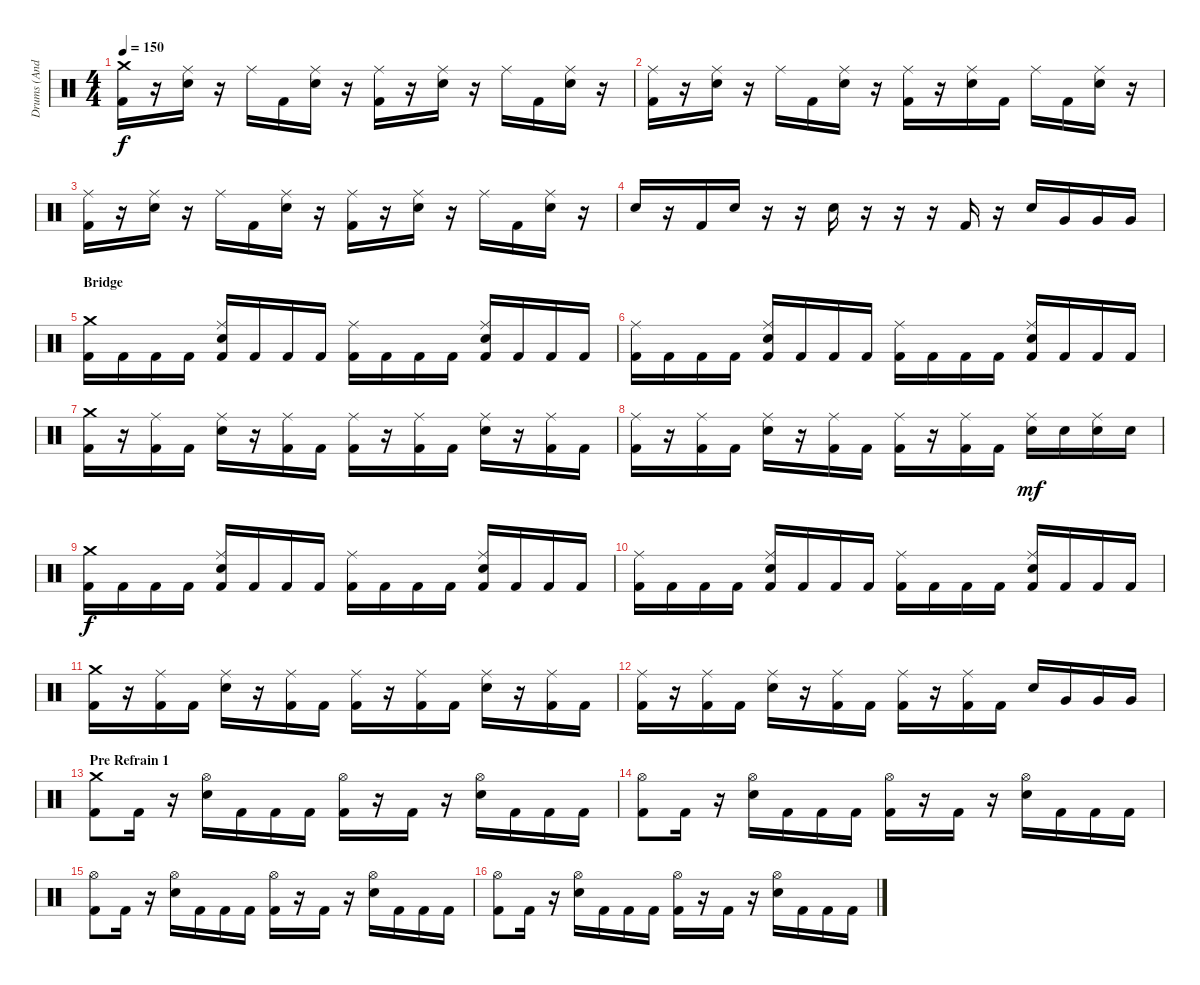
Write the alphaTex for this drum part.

\track ("Drums (Andy C)" "Drums (And") {instrument percussion}
\staff {score}
\articulation defaults
\ts (4 4)
\tempo 150
\clef neutral
\ks c
("Crash medium (hit)" "Kick (hit) 2").16{dy f} r.16 ("Ride (middle)" "Electric Snare (hit)").16 r.16 "Ride (middle)".16 "Kick (hit) 2".16 ("Ride (middle)" "Electric Snare (hit)").16 r.16 ("Ride (middle)" "Kick (hit) 2").16 r.16 ("Ride (middle)" "Electric Snare (hit)").16 r.16 "Ride (middle)".16 "Kick (hit) 2".16 ("Ride (middle)" "Electric Snare (hit)").16 r.16 |
("Ride (middle)" "Kick (hit) 2").16 r.16 ("Ride (middle)" "Electric Snare (hit)").16 r.16 "Ride (middle)".16 "Kick (hit) 2".16 ("Ride (middle)" "Electric Snare (hit)").16 r.16 ("Ride (middle)" "Kick (hit) 2").16 r.16 ("Ride (middle)" "Electric Snare (hit)").16 "Kick (hit) 2".16 "Ride (middle)".16 "Kick (hit) 2".16 ("Ride (middle)" "Electric Snare (hit)").16 r.16 |
("Ride (middle)" "Kick (hit) 2").16 r.16 ("Ride (middle)" "Electric Snare (hit)").16 r.16 "Ride (middle)".16 "Kick (hit) 2".16 ("Ride (middle)" "Electric Snare (hit)").16 r.16 ("Ride (middle)" "Kick (hit) 2").16 r.16 ("Ride (middle)" "Electric Snare (hit)").16 r.16 "Ride (middle)".16 "Kick (hit) 2".16 ("Ride (middle)" "Electric Snare (hit)").16 r.16 |
"Electric Snare (hit)".16 r.16 "Kick (hit) 2".16 "Electric Snare (hit)".16 r.16 r.16 "Electric Snare (hit)".16 r.16 r.16 r.16 "Kick (hit) 2".16 r.16 "Electric Snare (hit)".16 "Very Low Tom (hit)".16 "Very Low Tom (hit)".16 "Very Low Tom (hit)".16 |
\section ("" "Bridge")
("Crash medium (hit)" "Kick (hit) 2").16 "Kick (hit) 2".16 "Kick (hit) 2".16 "Kick (hit) 2".16 ("Ride (middle)" "Kick (hit) 2" "Electric Snare (hit)").16 "Kick (hit) 2".16 "Kick (hit) 2".16 "Kick (hit) 2".16 ("Ride (middle)" "Kick (hit) 2").16 "Kick (hit) 2".16 "Kick (hit) 2".16 "Kick (hit) 2".16 ("Ride (middle)" "Kick (hit) 2" "Electric Snare (hit)").16 "Kick (hit) 2".16 "Kick (hit) 2".16 "Kick (hit) 2".16 |
("Ride (middle)" "Kick (hit) 2").16 "Kick (hit) 2".16 "Kick (hit) 2".16 "Kick (hit) 2".16 ("Ride (middle)" "Kick (hit) 2" "Electric Snare (hit)").16 "Kick (hit) 2".16 "Kick (hit) 2".16 "Kick (hit) 2".16 ("Ride (middle)" "Kick (hit) 2").16 "Kick (hit) 2".16 "Kick (hit) 2".16 "Kick (hit) 2".16 ("Ride (middle)" "Kick (hit) 2" "Electric Snare (hit)").16 "Kick (hit) 2".16 "Kick (hit) 2".16 "Kick (hit) 2".16 |
("Crash medium (hit)" "Kick (hit) 2").16 r.16 ("Ride (middle)" "Kick (hit) 2").16 "Kick (hit) 2".16 ("Ride (middle)" "Electric Snare (hit)").16 r.16 ("Ride (middle)" "Kick (hit) 2").16 "Kick (hit) 2".16 ("Ride (middle)" "Kick (hit) 2").16 r.16 ("Ride (middle)" "Kick (hit) 2").16 "Kick (hit) 2".16 ("Ride (middle)" "Electric Snare (hit)").16 r.16 ("Ride (middle)" "Kick (hit) 2").16 "Kick (hit) 2".16 |
("Ride (middle)" "Kick (hit) 2").16 r.16 ("Ride (middle)" "Kick (hit) 2").16 "Kick (hit) 2".16 ("Ride (middle)" "Electric Snare (hit)").16 r.16 ("Ride (middle)" "Kick (hit) 2").16 "Kick (hit) 2".16 ("Ride (middle)" "Kick (hit) 2").16 r.16 ("Ride (middle)" "Kick (hit) 2").16 "Kick (hit) 2".16 ("Ride (middle)" "Electric Snare (hit)").16{dy mf} "Electric Snare (hit)".16 ("Ride (middle)" "Electric Snare (hit)").16 "Electric Snare (hit)".16 |
("Crash medium (hit)" "Kick (hit) 2").16{dy f} "Kick (hit) 2".16 "Kick (hit) 2".16 "Kick (hit) 2".16 ("Ride (middle)" "Kick (hit) 2" "Electric Snare (hit)").16 "Kick (hit) 2".16 "Kick (hit) 2".16 "Kick (hit) 2".16 ("Ride (middle)" "Kick (hit) 2").16 "Kick (hit) 2".16 "Kick (hit) 2".16 "Kick (hit) 2".16 ("Ride (middle)" "Kick (hit) 2" "Electric Snare (hit)").16 "Kick (hit) 2".16 "Kick (hit) 2".16 "Kick (hit) 2".16 |
("Ride (middle)" "Kick (hit) 2").16 "Kick (hit) 2".16 "Kick (hit) 2".16 "Kick (hit) 2".16 ("Ride (middle)" "Kick (hit) 2" "Electric Snare (hit)").16 "Kick (hit) 2".16 "Kick (hit) 2".16 "Kick (hit) 2".16 ("Ride (middle)" "Kick (hit) 2").16 "Kick (hit) 2".16 "Kick (hit) 2".16 "Kick (hit) 2".16 ("Ride (middle)" "Kick (hit) 2" "Electric Snare (hit)").16 "Kick (hit) 2".16 "Kick (hit) 2".16 "Kick (hit) 2".16 |
("Crash medium (hit)" "Kick (hit) 2").16 r.16 ("Ride (middle)" "Kick (hit) 2").16 "Kick (hit) 2".16 ("Ride (middle)" "Electric Snare (hit)").16 r.16 ("Ride (middle)" "Kick (hit) 2").16 "Kick (hit) 2".16 ("Ride (middle)" "Kick (hit) 2").16 r.16 ("Ride (middle)" "Kick (hit) 2").16 "Kick (hit) 2".16 ("Ride (middle)" "Electric Snare (hit)").16 r.16 ("Ride (middle)" "Kick (hit) 2").16 "Kick (hit) 2".16 |
("Ride (middle)" "Kick (hit) 2").16 r.16 ("Ride (middle)" "Kick (hit) 2").16 "Kick (hit) 2".16 ("Ride (middle)" "Electric Snare (hit)").16 r.16 ("Ride (middle)" "Kick (hit) 2").16 "Kick (hit) 2".16 ("Ride (middle)" "Kick (hit) 2").16 r.16 ("Ride (middle)" "Kick (hit) 2").16 "Kick (hit) 2".16 "Electric Snare (hit)".16 "Very Low Tom (hit)".16 "Very Low Tom (hit)".16 "Very Low Tom (hit)".16 |
\section ("" "Pre Refrain 1")
("Crash medium (hit)" "Kick (hit) 2").8 "Kick (hit) 2".16 r.16 ("Hi-Hat (open)" "Electric Snare (hit)").16 "Kick (hit) 2".16 "Kick (hit) 2".16 "Kick (hit) 2".16 ("Hi-Hat (open)" "Kick (hit) 2").16 r.16 "Kick (hit) 2".16 r.16 ("Hi-Hat (open)" "Electric Snare (hit)").16 "Kick (hit) 2".16 "Kick (hit) 2".16 "Kick (hit) 2".16 |
("Hi-Hat (open)" "Kick (hit) 2").8 "Kick (hit) 2".16 r.16 ("Hi-Hat (open)" "Electric Snare (hit)").16 "Kick (hit) 2".16 "Kick (hit) 2".16 "Kick (hit) 2".16 ("Hi-Hat (open)" "Kick (hit) 2").16 r.16 "Kick (hit) 2".16 r.16 ("Hi-Hat (open)" "Electric Snare (hit)").16 "Kick (hit) 2".16 "Kick (hit) 2".16 "Kick (hit) 2".16 |
("Hi-Hat (open)" "Kick (hit) 2").8 "Kick (hit) 2".16 r.16 ("Hi-Hat (open)" "Electric Snare (hit)").16 "Kick (hit) 2".16 "Kick (hit) 2".16 "Kick (hit) 2".16 ("Hi-Hat (open)" "Kick (hit) 2").16 r.16 "Kick (hit) 2".16 r.16 ("Hi-Hat (open)" "Electric Snare (hit)").16 "Kick (hit) 2".16 "Kick (hit) 2".16 "Kick (hit) 2".16 |
("Hi-Hat (open)" "Kick (hit) 2").8 "Kick (hit) 2".16 r.16 ("Hi-Hat (open)" "Electric Snare (hit)").16 "Kick (hit) 2".16 "Kick (hit) 2".16 "Kick (hit) 2".16 ("Hi-Hat (open)" "Kick (hit) 2").16 r.16 "Kick (hit) 2".16 r.16 ("Hi-Hat (open)" "Electric Snare (hit)").16 "Kick (hit) 2".16 "Kick (hit) 2".16 "Kick (hit) 2".16
